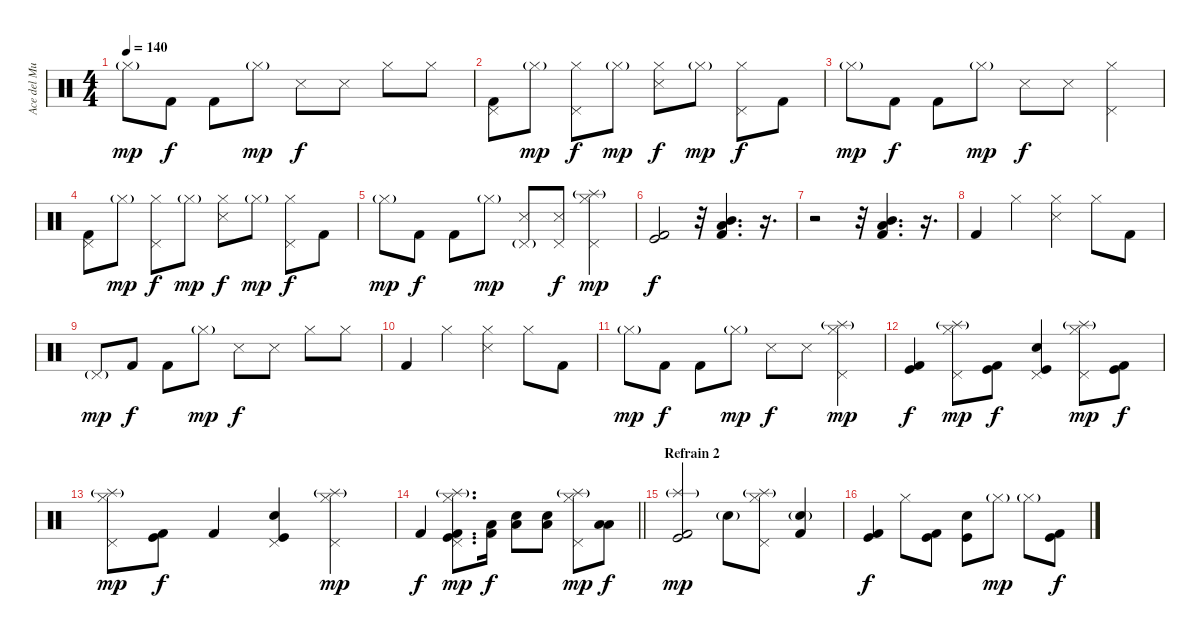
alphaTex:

\track ("Ace del Mundo(Drums)" "Ace del Mu") {instrument percussion}
\staff {score}
\articulation defaults
\ts (4 4)
\tempo 140
\clef neutral
\ks c "Hi-Hat (closed)"{g}.8{dy mp} "Kick (hit) 2".8{dy f} "Kick (hit) 2".8 "Hi-Hat (closed)"{g}.8{dy mp} "Snare (side stick) 3".8{dy f} "Snare (side stick) 3".8 "Hi-Hat (closed)".8 "Hi-Hat (closed)".8
|
("Pedal Hi-Hat (hit)" "Kick (hit) 2").8 "Hi-Hat (closed)"{g}.8{dy mp} ("Pedal Hi-Hat (hit)" "Hi-Hat (closed)").8{dy f} "Hi-Hat (closed)"{g}.8{dy mp} ("Hi-Hat (closed)" "Snare (side stick) 3").8{dy f} "Hi-Hat (closed)"{g}.8{dy mp} ("Pedal Hi-Hat (hit)" "Hi-Hat (closed)").8{dy f} "Kick (hit) 2".8 |
"Hi-Hat (closed)"{g}.8{dy mp} "Kick (hit) 2".8{dy f} "Kick (hit) 2".8 "Hi-Hat (closed)"{g}.8{dy mp} "Snare (side stick) 3".8{dy f} "Snare (side stick) 3".8 ("Hi-Hat (closed)" "Pedal Hi-Hat (hit)").4 |
("Pedal Hi-Hat (hit)" "Kick (hit) 2").8 "Hi-Hat (closed)"{g}.8{dy mp} ("Pedal Hi-Hat (hit)" "Hi-Hat (closed)").8{dy f} "Hi-Hat (closed)"{g}.8{dy mp} ("Hi-Hat (closed)" "Snare (side stick) 3").8{dy f} "Hi-Hat (closed)"{g}.8{dy mp} ("Pedal Hi-Hat (hit)" "Hi-Hat (closed)").8{dy f} "Kick (hit) 2".8 |
"Hi-Hat (closed)"{g}.8{dy mp} "Kick (hit) 2".8{dy f} "Kick (hit) 2".8 "Hi-Hat (closed)"{g}.8{dy mp} ("Pedal Hi-Hat (hit)"{g} "Snare (side stick) 3").8 ("Pedal Hi-Hat (hit)" "Snare (side stick) 3").8{dy f} ("Hi-Hat (closed)" "Pedal Hi-Hat (hit)" "Splash (hit)"{g}).4{dy mp} |
("Kick (hit) 2" "Kick (hit)").2{dy f} r.32 ("Mid Tom (hit)" "Low Tom (hit)" "Kick (hit) 2").4{d bd 60} r.16{d} |
r.2 r.32 ("Mid Tom (hit)" "Low Tom (hit)" "Kick (hit) 2").4{d bd 60} r.16{d} |
"Kick (hit) 2".4 "Hi-Hat (closed)".4 ("Hi-Hat (closed)" "Snare (side stick) 3").4 "Hi-Hat (closed)".8 "Kick (hit) 2".8 |
"Pedal Hi-Hat (hit)"{g}.8{dy mp} "Kick (hit) 2".8{dy f} "Kick (hit) 2".8 "Hi-Hat (closed)"{g}.8{dy mp} "Snare (side stick) 3".8{dy f} "Snare (side stick) 3".8 "Hi-Hat (closed)".8 "Hi-Hat (closed)".8 |
"Kick (hit) 2".4 "Hi-Hat (closed)".4 ("Hi-Hat (closed)" "Snare (side stick) 3").4 "Hi-Hat (closed)".8 "Kick (hit) 2".8 |
"Hi-Hat (closed)"{g}.8{dy mp} "Kick (hit) 2".8{dy f} "Kick (hit) 2".8 "Hi-Hat (closed)"{g}.8{dy mp} "Snare (side stick) 3".8{dy f} "Snare (side stick) 3".8 ("Hi-Hat (closed)" "Pedal Hi-Hat (hit)" "Splash (hit)"{g}).4{dy mp} |
("Kick (hit) 2" "Kick (hit)").4{dy f} ("Hi-Hat (closed)" "Pedal Hi-Hat (hit)" "Splash (hit)"{g}).8{dy mp} ("Kick (hit) 2" "Kick (hit)").8{dy f} ("Pedal Hi-Hat (hit)" "Electric Snare (hit)" "Kick (hit)").4 ("Hi-Hat (closed)" "Pedal Hi-Hat (hit)" "Splash (hit)"{g}).8{dy mp} ("Kick (hit) 2" "Kick (hit)").8{dy f} |
("Hi-Hat (closed)" "Pedal Hi-Hat (hit)" "Splash (hit)"{g}).8{dy mp} ("Kick (hit) 2" "Kick (hit)").8{dy f} "Kick (hit) 2".4 ("Pedal Hi-Hat (hit)" "Electric Snare (hit)" "Kick (hit)").4 ("Hi-Hat (closed)" "Pedal Hi-Hat (hit)" "Splash (hit)"{g}).4{dy mp} |
\barLineRight lightlight "Kick (hit) 2".4{dy f}
("Kick (hit) 2" "Kick (hit)" "Pedal Hi-Hat (hit)" "Hi-Hat (closed)" "Splash (hit)"{g}).8{d dy mp} ("Low Tom (hit)" "Kick (hit) 2").16{dy f} ("Electric Snare (hit)" "Low Tom (hit)").8 ("Electric Snare (hit)" "Low Tom (hit)").8 ("Hi-Hat (closed)" "Pedal Hi-Hat (hit)" "Splash (hit)"{g}).8{dy mp} ("Low Tom (hit)" "Low Tom (hit)").8{dy f} |
\section ("" "Refrain 2")
("Kick (hit) 2" "Kick (hit)" "Splash (hit)"{g}).2{dy mp} "Electric Snare (hit)"{g}.8 ("Pedal Hi-Hat (hit)" "Hi-Hat (closed)" "Splash (hit)"{g}).8 ("Electric Snare (hit)"{g} "Kick (hit) 2").4 |
("Kick (hit) 2" "Kick (hit)").4{dy f} "Hi-Hat (closed)".8 ("Kick (hit) 2" "Kick (hit)").8 ("Electric Snare (hit)" "Kick (hit)").8 "Hi-Hat (closed)"{g}.8{dy mp} "Hi-Hat (closed)"{g}.8 ("Kick (hit) 2" "Kick (hit)").8{dy f}
